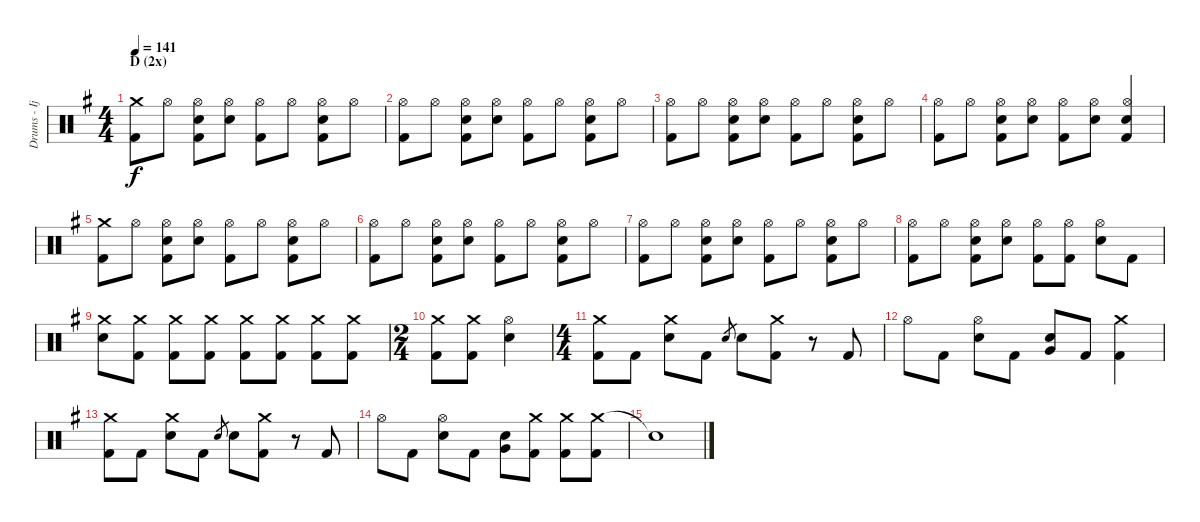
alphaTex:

\track ("Drums - Ijichi Kiyoshi" "Drums - Ij") {instrument percussion}
\staff {score}
\articulation defaults
\ts (4 4)
\section ("" "D (2x)")
\tempo 141
\clef neutral
\ks g
("Crash medium (hit)" "Kick (hit) 2").8{dy f} "Hi-Hat (open)".8 ("Hi-Hat (open)" "Electric Snare (hit)" "Kick (hit) 2").8 ("Hi-Hat (open)" "Electric Snare (hit)").8 ("Hi-Hat (open)" "Kick (hit) 2").8 "Hi-Hat (open)".8 ("Hi-Hat (open)" "Electric Snare (hit)" "Kick (hit) 2").8 "Hi-Hat (open)".8 |
("Hi-Hat (open)" "Kick (hit) 2").8 "Hi-Hat (open)".8 ("Hi-Hat (open)" "Electric Snare (hit)" "Kick (hit) 2").8 ("Hi-Hat (open)" "Electric Snare (hit)").8 ("Hi-Hat (open)" "Kick (hit) 2").8 "Hi-Hat (open)".8 ("Hi-Hat (open)" "Electric Snare (hit)" "Kick (hit) 2").8 "Hi-Hat (open)".8 |
("Hi-Hat (open)" "Kick (hit) 2").8 "Hi-Hat (open)".8 ("Hi-Hat (open)" "Electric Snare (hit)" "Kick (hit) 2").8 ("Hi-Hat (open)" "Electric Snare (hit)").8 ("Hi-Hat (open)" "Kick (hit) 2").8 "Hi-Hat (open)".8 ("Hi-Hat (open)" "Electric Snare (hit)" "Kick (hit) 2").8 "Hi-Hat (open)".8 |
("Hi-Hat (open)" "Kick (hit) 2").8 "Hi-Hat (open)".8 ("Hi-Hat (open)" "Electric Snare (hit)" "Kick (hit) 2").8 ("Hi-Hat (open)" "Electric Snare (hit)").8 ("Hi-Hat (open)" "Kick (hit) 2").8 ("Hi-Hat (open)" "Electric Snare (hit)").8 ("Hi-Hat (open)" "Electric Snare (hit)" "Kick (hit) 2").4 |
("Crash medium (hit)" "Kick (hit) 2").8 "Hi-Hat (open)".8 ("Hi-Hat (open)" "Electric Snare (hit)" "Kick (hit) 2").8 ("Hi-Hat (open)" "Electric Snare (hit)").8 ("Hi-Hat (open)" "Kick (hit) 2").8 "Hi-Hat (open)".8 ("Hi-Hat (open)" "Electric Snare (hit)" "Kick (hit) 2").8 "Hi-Hat (open)".8 |
("Hi-Hat (open)" "Kick (hit) 2").8 "Hi-Hat (open)".8 ("Hi-Hat (open)" "Electric Snare (hit)" "Kick (hit) 2").8 ("Hi-Hat (open)" "Electric Snare (hit)").8 ("Hi-Hat (open)" "Kick (hit) 2").8 "Hi-Hat (open)".8 ("Hi-Hat (open)" "Electric Snare (hit)" "Kick (hit) 2").8 "Hi-Hat (open)".8 |
("Hi-Hat (open)" "Kick (hit) 2").8 "Hi-Hat (open)".8 ("Hi-Hat (open)" "Electric Snare (hit)" "Kick (hit) 2").8 ("Hi-Hat (open)" "Electric Snare (hit)").8 ("Hi-Hat (open)" "Kick (hit) 2").8 "Hi-Hat (open)".8 ("Hi-Hat (open)" "Electric Snare (hit)" "Kick (hit) 2").8 "Hi-Hat (open)".8 |
("Hi-Hat (open)" "Kick (hit) 2").8 "Hi-Hat (open)".8 ("Hi-Hat (open)" "Electric Snare (hit)" "Kick (hit) 2").8 ("Hi-Hat (open)" "Electric Snare (hit)").8 ("Hi-Hat (open)" "Kick (hit) 2").8 ("Hi-Hat (open)" "Kick (hit) 2").8 ("Hi-Hat (open)" "Electric Snare (hit)").8 "Kick (hit) 2".8 |
("Crash medium (hit)" "Electric Snare (hit)").8 ("Crash medium (hit)" "Kick (hit) 2").8 ("Crash medium (hit)" "Kick (hit) 2").8 ("Crash medium (hit)" "Kick (hit) 2").8 ("Crash medium (hit)" "Kick (hit) 2").8 ("Crash medium (hit)" "Kick (hit) 2").8 ("Crash medium (hit)" "Kick (hit) 2").8 ("Crash medium (hit)" "Kick (hit) 2").8 |
\ts (2 4)
("Crash medium (hit)" "Kick (hit) 2").8 ("Crash medium (hit)" "Kick (hit) 2").8 ("Hi-Hat (open)" "Electric Snare (hit)").4 |
\ts (4 4)
("Crash medium (hit)" "Kick (hit) 2").8 "Kick (hit) 2".8 ("Crash medium (hit)" "Electric Snare (hit)").8 "Kick (hit) 2".8 "Electric Snare (hit)".8{gr} "Electric Snare (hit)".8 ("Crash medium (hit)" "Kick (hit) 2").8 r.8 "Kick (hit) 2".8 |
"Hi-Hat (open)".8 "Kick (hit) 2".8 ("Hi-Hat (open)" "Electric Snare (hit)").8 "Kick (hit) 2".8 ("Electric Snare (hit)" "Very Low Tom (hit)").8 "Kick (hit) 2".8 ("Crash medium (hit)" "Kick (hit) 2").4 |
("Crash medium (hit)" "Kick (hit) 2").8 "Kick (hit) 2".8 ("Crash medium (hit)" "Electric Snare (hit)").8 "Kick (hit) 2".8 "Electric Snare (hit)".8{gr} "Electric Snare (hit)".8 ("Crash medium (hit)" "Kick (hit) 2").8 r.8 "Kick (hit) 2".8 |
"Hi-Hat (open)".8 "Kick (hit) 2".8 ("Hi-Hat (open)" "Electric Snare (hit)").8 "Kick (hit) 2".8 ("Electric Snare (hit)" "Very Low Tom (hit)").8 ("Crash medium (hit)" "Kick (hit) 2").8 ("Crash medium (hit)" "Kick (hit) 2").8 ("Crash medium (hit)" "Kick (hit) 2").8 |
"Snare (hit)"{t}.1
